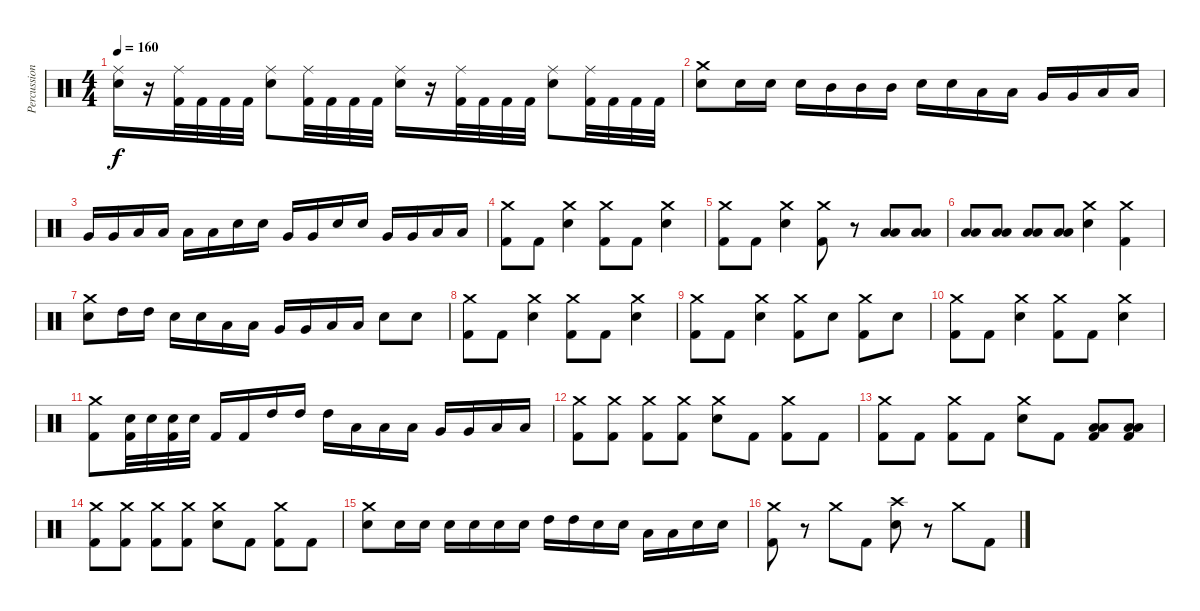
\track ("Percussion" "Percussion") {instrument percussion}
\staff {score}
\articulation defaults
\ts (4 4)
\tempo 160
\clef neutral
\ks c
("Snare (hit) 2" "Ride (middle)").16{dy f} r.16 ("Kick (hit) 2" "Ride (middle)").32 "Kick (hit) 2".32 "Kick (hit) 2".32 "Kick (hit) 2".32 ("Snare (hit) 2" "Ride (middle)").8 ("Kick (hit) 2" "Ride (middle)").32 "Kick (hit) 2".32 "Kick (hit) 2".32 "Kick (hit) 2".32 ("Snare (hit) 2" "Ride (middle)").16 r.16 ("Kick (hit) 2" "Ride (middle)").32 "Kick (hit) 2".32 "Kick (hit) 2".32 "Kick (hit) 2".32 ("Snare (hit) 2" "Ride (middle)").8 ("Kick (hit) 2" "Ride (middle)").32 "Kick (hit) 2".32 "Kick (hit) 2".32 "Kick (hit) 2".32 |
("Snare (hit) 2" "Crash medium (hit)").8 "Snare (hit) 2".16 "Snare (hit) 2".16 "Snare (hit) 2".16 "Mid Tom (hit)".16 "Mid Tom (hit)".16 "Mid Tom (hit)".16 "Snare (hit) 2".16 "Snare (hit) 2".16 "Low Tom (hit)".16 "Low Tom (hit)".16 "Very Low Tom (hit)".16 "Very Low Tom (hit)".16 "Low Floor Tom (hit)".16 "Low Floor Tom (hit)".16 |
"Very Low Tom (hit)".16 "Very Low Tom (hit)".16 "Low Tom (hit)".16 "Low Tom (hit)".16 "Low Tom (hit)".16 "Low Tom (hit)".16 "Snare (hit) 2".16 "Snare (hit) 2".16 "Very Low Tom (hit)".16 "Very Low Tom (hit)".16 "Snare (hit) 2".16 "Snare (hit) 2".16 "Very Low Tom (hit)".16 "Very Low Tom (hit)".16 "Low Floor Tom (hit)".16 "Low Floor Tom (hit)".16 |
("Kick (hit) 2" "Crash medium (hit)").8 "Kick (hit) 2".8 ("Snare (hit) 2" "Crash medium (hit)").4 ("Kick (hit) 2" "Crash medium (hit)").8 "Kick (hit) 2".8 ("Snare (hit) 2" "Crash medium (hit)").4 |
("Kick (hit) 2" "Crash medium (hit)").8 "Kick (hit) 2".8 ("Snare (hit) 2" "Crash medium (hit)").4 ("Kick (hit) 2" "Crash medium (hit)").8 r.8 ("Low Tom (hit)" "Low Floor Tom (hit)").8 ("Low Tom (hit)" "Low Floor Tom (hit)").8 |
("Low Tom (hit)" "Low Floor Tom (hit)").8 ("Low Tom (hit)" "Low Floor Tom (hit)").8 ("Low Tom (hit)" "Low Floor Tom (hit)").8 ("Low Tom (hit)" "Low Floor Tom (hit)").8 ("Snare (hit) 2" "Crash medium (hit)").4 ("Kick (hit) 2" "Crash medium (hit)").4 |
("Snare (hit) 2" "Crash medium (hit)").8 "High Tom (hit)".16 "High Tom (hit)".16 "Snare (hit) 2".16 "Snare (hit) 2".16 "Low Tom (hit)".16 "Low Tom (hit)".16 "Very Low Tom (hit)".16 "Very Low Tom (hit)".16 "Low Floor Tom (hit)".16 "Low Floor Tom (hit)".16 "Snare (hit) 2".8 "Snare (hit) 2".8 |
("Kick (hit) 2" "Crash medium (hit)").8 "Kick (hit) 2".8 ("Snare (hit) 2" "Crash medium (hit)").4 ("Kick (hit) 2" "Crash medium (hit)").8 "Kick (hit) 2".8 ("Snare (hit) 2" "Crash medium (hit)").4 |
("Kick (hit) 2" "Crash medium (hit)").8 "Kick (hit) 2".8 ("Snare (hit) 2" "Crash medium (hit)").4 ("Kick (hit) 2" "Crash medium (hit)").8 "Snare (hit) 2".8 ("Kick (hit) 2" "Crash medium (hit)").8 "Snare (hit) 2".8 |
("Kick (hit) 2" "Crash medium (hit)").8 "Kick (hit) 2".8 ("Snare (hit) 2" "Crash medium (hit)").4 ("Kick (hit) 2" "Crash medium (hit)").8 "Kick (hit) 2".8 ("Snare (hit) 2" "Crash medium (hit)").4 |
("Kick (hit) 2" "Crash medium (hit)").8 ("Snare (hit) 2" "Kick (hit) 2").32 "Snare (hit) 2".32 ("Snare (hit) 2" "Kick (hit) 2").32 "Snare (hit) 2".32 "Kick (hit) 2".16 "Kick (hit) 2".16 "High Tom (hit)".16 "High Tom (hit)".16 "High Tom (hit)".16 "Low Tom (hit)".16 "Low Tom (hit)".16 "Low Tom (hit)".16 "Very Low Tom (hit)".16 "Very Low Tom (hit)".16 "Low Floor Tom (hit)".16 "Low Floor Tom (hit)".16 |
("Kick (hit) 2" "Crash medium (hit)").8 ("Kick (hit) 2" "Crash medium (hit)").8 ("Kick (hit) 2" "Crash medium (hit)").8 ("Kick (hit) 2" "Crash medium (hit)").8 ("Snare (hit) 2" "Crash medium (hit)").8 "Kick (hit) 2".8 ("Kick (hit) 2" "Crash medium (hit)").8 "Kick (hit) 2".8 |
("Kick (hit) 2" "Crash medium (hit)").8 "Kick (hit) 2".8 ("Kick (hit) 2" "Crash medium (hit)").8 "Kick (hit) 2".8 ("Snare (hit) 2" "Crash medium (hit)").8 "Kick (hit) 2".8 ("Low Floor Tom (hit)" "Low Tom (hit)" "Kick (hit) 2").8 ("Low Floor Tom (hit)" "Low Tom (hit)" "Kick (hit) 2").8 |
("Kick (hit) 2" "Crash medium (hit)").8 ("Kick (hit) 2" "Crash medium (hit)").8 ("Kick (hit) 2" "Crash medium (hit)").8 ("Kick (hit) 2" "Crash medium (hit)").8 ("Snare (hit) 2" "Crash medium (hit)").8 "Kick (hit) 2".8 ("Kick (hit) 2" "Crash medium (hit)").8 "Kick (hit) 2".8 |
("Snare (hit) 2" "Crash medium (hit)").8 "Snare (hit) 2".16 "Snare (hit) 2".16 "Snare (hit) 2".16 "Snare (hit) 2".16 "Snare (hit) 2".16 "Snare (hit) 2".16 "High Tom (hit)".16 "High Tom (hit)".16 "Snare (hit) 2".16 "Snare (hit) 2".16 "Low Tom (hit)".16 "Low Tom (hit)".16 "Snare (hit) 2".16 "Snare (hit) 2".16 |
("Kick (hit) 2" "Crash medium (hit)").8 r.8 "Crash medium (hit)".8 "Kick (hit) 2".8 ("Snare (hit) 2" "Crash high (hit)").8 r.8 "Crash medium (hit)".8 "Kick (hit) 2".8
